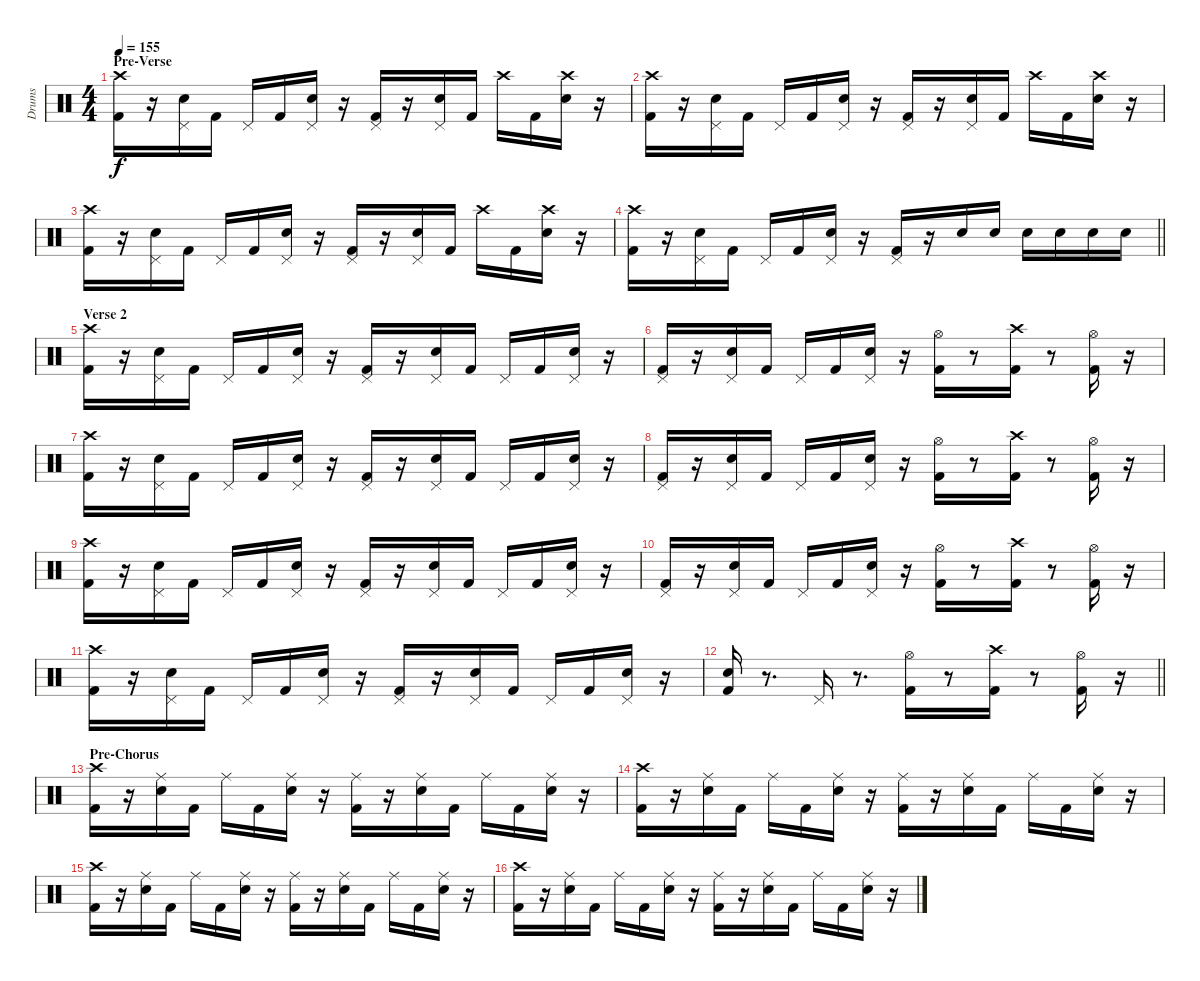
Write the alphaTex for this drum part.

\track ("Drums" "Drums") {instrument percussion}
\staff {score}
\articulation defaults
\ts (4 4)
\section ("" "Pre-Verse")
\tempo 155
\clef neutral
\ks c
("Crash high (hit)" "Kick (hit) 2").16{dy f} r.16 ("Pedal Hi-Hat (hit)" "Snare (hit) 2").16 "Kick (hit) 2".16 "Pedal Hi-Hat (hit)".16 "Kick (hit) 2".16 ("Pedal Hi-Hat (hit)" "Snare (hit) 2").16 r.16 ("Pedal Hi-Hat (hit)" "Kick (hit) 2").16 r.16 ("Pedal Hi-Hat (hit)" "Snare (hit) 2").16 "Kick (hit) 2".16 "Crash high (hit)".16 "Kick (hit) 2".16 ("Crash high (hit)" "Snare (hit) 2").16 r.16 |
("Crash high (hit)" "Kick (hit) 2").16 r.16 ("Pedal Hi-Hat (hit)" "Snare (hit) 2").16 "Kick (hit) 2".16 "Pedal Hi-Hat (hit)".16 "Kick (hit) 2".16 ("Pedal Hi-Hat (hit)" "Snare (hit) 2").16 r.16 ("Pedal Hi-Hat (hit)" "Kick (hit) 2").16 r.16 ("Pedal Hi-Hat (hit)" "Snare (hit) 2").16 "Kick (hit) 2".16 "Crash high (hit)".16 "Kick (hit) 2".16 ("Crash high (hit)" "Snare (hit) 2").16 r.16 |
("Crash high (hit)" "Kick (hit) 2").16 r.16 ("Pedal Hi-Hat (hit)" "Snare (hit) 2").16 "Kick (hit) 2".16 "Pedal Hi-Hat (hit)".16 "Kick (hit) 2".16 ("Pedal Hi-Hat (hit)" "Snare (hit) 2").16 r.16 ("Pedal Hi-Hat (hit)" "Kick (hit) 2").16 r.16 ("Pedal Hi-Hat (hit)" "Snare (hit) 2").16 "Kick (hit) 2".16 "Crash high (hit)".16 "Kick (hit) 2".16 ("Crash high (hit)" "Snare (hit) 2").16 r.16 |
\barLineRight lightlight
("Crash high (hit)" "Kick (hit) 2").16 r.16 ("Pedal Hi-Hat (hit)" "Snare (hit) 2").16 "Kick (hit) 2".16 "Pedal Hi-Hat (hit)".16 "Kick (hit) 2".16 ("Pedal Hi-Hat (hit)" "Snare (hit) 2").16 r.16 ("Pedal Hi-Hat (hit)" "Kick (hit) 2").16 r.16 "Snare (hit) 2".16 "Snare (hit) 2".16 "Snare (hit) 2".16 "Snare (hit) 2".16 "Snare (hit) 2".16 "Snare (hit) 2".16 |
\section ("" "Verse 2")
("Crash high (hit)" "Kick (hit) 2").16 r.16 ("Pedal Hi-Hat (hit)" "Snare (hit) 2").16 "Kick (hit) 2".16 "Pedal Hi-Hat (hit)".16 "Kick (hit) 2".16 ("Pedal Hi-Hat (hit)" "Snare (hit) 2").16 r.16 ("Pedal Hi-Hat (hit)" "Kick (hit) 2").16 r.16 ("Pedal Hi-Hat (hit)" "Snare (hit) 2").16 "Kick (hit) 2".16 "Pedal Hi-Hat (hit)".16 "Kick (hit) 2".16 ("Pedal Hi-Hat (hit)" "Snare (hit) 2").16 r.16 |
("Pedal Hi-Hat (hit)" "Kick (hit) 2").16 r.16 ("Pedal Hi-Hat (hit)" "Snare (hit) 2").16 "Kick (hit) 2".16 "Pedal Hi-Hat (hit)".16 "Kick (hit) 2".16 ("Pedal Hi-Hat (hit)" "Snare (hit) 2").16 r.16 ("Hi-Hat (open)" "Kick (hit) 2").16 r.8 ("Crash high (hit)" "Kick (hit) 2").16 r.8 ("Hi-Hat (open)" "Kick (hit) 2").16 r.16 |
("Crash high (hit)" "Kick (hit) 2").16 r.16 ("Pedal Hi-Hat (hit)" "Snare (hit) 2").16 "Kick (hit) 2".16 "Pedal Hi-Hat (hit)".16 "Kick (hit) 2".16 ("Pedal Hi-Hat (hit)" "Snare (hit) 2").16 r.16 ("Pedal Hi-Hat (hit)" "Kick (hit) 2").16 r.16 ("Pedal Hi-Hat (hit)" "Snare (hit) 2").16 "Kick (hit) 2".16 "Pedal Hi-Hat (hit)".16 "Kick (hit) 2".16 ("Pedal Hi-Hat (hit)" "Snare (hit) 2").16 r.16 |
("Pedal Hi-Hat (hit)" "Kick (hit) 2").16 r.16 ("Pedal Hi-Hat (hit)" "Snare (hit) 2").16 "Kick (hit) 2".16 "Pedal Hi-Hat (hit)".16 "Kick (hit) 2".16 ("Pedal Hi-Hat (hit)" "Snare (hit) 2").16 r.16 ("Hi-Hat (open)" "Kick (hit) 2").16 r.8 ("Crash high (hit)" "Kick (hit) 2").16 r.8 ("Hi-Hat (open)" "Kick (hit) 2").16 r.16 |
("Crash high (hit)" "Kick (hit) 2").16 r.16 ("Pedal Hi-Hat (hit)" "Snare (hit) 2").16 "Kick (hit) 2".16 "Pedal Hi-Hat (hit)".16 "Kick (hit) 2".16 ("Pedal Hi-Hat (hit)" "Snare (hit) 2").16 r.16 ("Pedal Hi-Hat (hit)" "Kick (hit) 2").16 r.16 ("Pedal Hi-Hat (hit)" "Snare (hit) 2").16 "Kick (hit) 2".16 "Pedal Hi-Hat (hit)".16 "Kick (hit) 2".16 ("Pedal Hi-Hat (hit)" "Snare (hit) 2").16 r.16 |
("Pedal Hi-Hat (hit)" "Kick (hit) 2").16 r.16 ("Pedal Hi-Hat (hit)" "Snare (hit) 2").16 "Kick (hit) 2".16 "Pedal Hi-Hat (hit)".16 "Kick (hit) 2".16 ("Pedal Hi-Hat (hit)" "Snare (hit) 2").16 r.16 ("Hi-Hat (open)" "Kick (hit) 2").16 r.8 ("Crash high (hit)" "Kick (hit) 2").16 r.8 ("Hi-Hat (open)" "Kick (hit) 2").16 r.16 |
("Crash high (hit)" "Kick (hit) 2").16 r.16 ("Pedal Hi-Hat (hit)" "Snare (hit) 2").16 "Kick (hit) 2".16 "Pedal Hi-Hat (hit)".16 "Kick (hit) 2".16 ("Pedal Hi-Hat (hit)" "Snare (hit) 2").16 r.16 ("Pedal Hi-Hat (hit)" "Kick (hit) 2").16 r.16 ("Pedal Hi-Hat (hit)" "Snare (hit) 2").16 "Kick (hit) 2".16 "Pedal Hi-Hat (hit)".16 "Kick (hit) 2".16 ("Pedal Hi-Hat (hit)" "Snare (hit) 2").16 r.16 |
\barLineRight lightlight
("Snare (hit) 2" "Kick (hit) 2").16 r.8{d} "Pedal Hi-Hat (hit)".16 r.8{d} ("Hi-Hat (open)" "Kick (hit) 2").16 r.8 ("Crash high (hit)" "Kick (hit) 2").16 r.8 ("Hi-Hat (open)" "Kick (hit) 2").16 r.16 |
\section ("" "Pre-Chorus")
("Crash high (hit)" "Kick (hit) 2").16 r.16 ("Ride (middle)" "Snare (hit) 2").16 "Kick (hit) 2".16 "Ride (middle)".16 "Kick (hit) 2".16 ("Ride (middle)" "Snare (hit) 2").16 r.16 ("Ride (middle)" "Kick (hit) 2").16 r.16 ("Ride (middle)" "Snare (hit) 2").16 "Kick (hit) 2".16 "Ride (middle)".16 "Kick (hit) 2".16 ("Ride (middle)" "Snare (hit) 2").16 r.16 |
("Crash high (hit)" "Kick (hit) 2").16 r.16 ("Ride (middle)" "Snare (hit) 2").16 "Kick (hit) 2".16 "Ride (middle)".16 "Kick (hit) 2".16 ("Ride (middle)" "Snare (hit) 2").16 r.16 ("Ride (middle)" "Kick (hit) 2").16 r.16 ("Ride (middle)" "Snare (hit) 2").16 "Kick (hit) 2".16 "Ride (middle)".16 "Kick (hit) 2".16 ("Ride (middle)" "Snare (hit) 2").16 r.16 |
("Crash high (hit)" "Kick (hit) 2").16 r.16 ("Ride (middle)" "Snare (hit) 2").16 "Kick (hit) 2".16 "Ride (middle)".16 "Kick (hit) 2".16 ("Ride (middle)" "Snare (hit) 2").16 r.16 ("Ride (middle)" "Kick (hit) 2").16 r.16 ("Ride (middle)" "Snare (hit) 2").16 "Kick (hit) 2".16 "Ride (middle)".16 "Kick (hit) 2".16 ("Ride (middle)" "Snare (hit) 2").16 r.16 |
("Crash high (hit)" "Kick (hit) 2").16 r.16 ("Ride (middle)" "Snare (hit) 2").16 "Kick (hit) 2".16 "Ride (middle)".16 "Kick (hit) 2".16 ("Ride (middle)" "Snare (hit) 2").16 r.16 ("Ride (middle)" "Kick (hit) 2").16 r.16 ("Ride (middle)" "Snare (hit) 2").16 "Kick (hit) 2".16 "Ride (middle)".16 "Kick (hit) 2".16 ("Ride (middle)" "Snare (hit) 2").16 r.16
